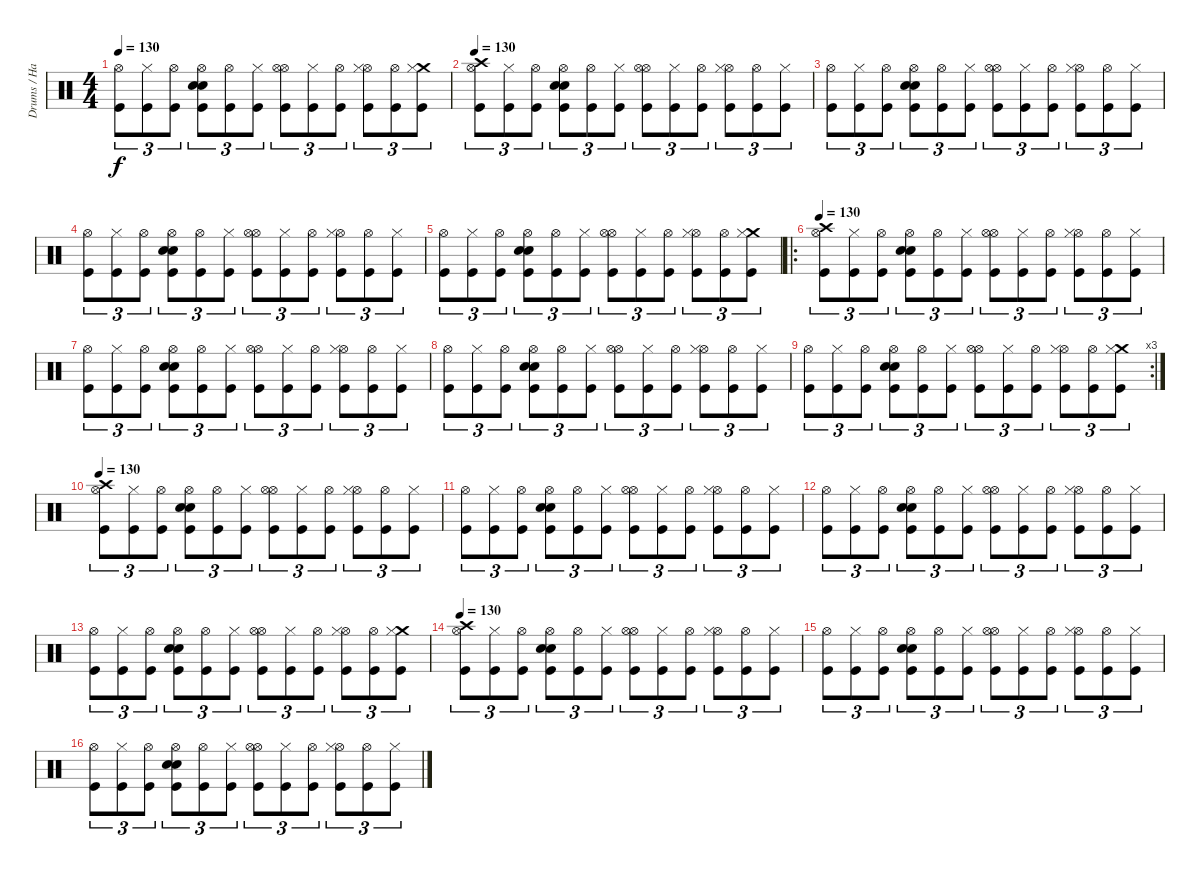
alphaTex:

\track ("Drums / Hammer of God" "Drums / Ha") {instrument percussion}
\staff {score}
\articulation defaults
\ts (4 4)
\tempo 130
\clef neutral
\ks c
("Hi-Hat (open)" "Kick (hit)").8{tu (3 2) dy f} ("Hi-Hat (closed)" "Kick (hit)").8{tu (3 2)} ("Hi-Hat (open)" "Kick (hit)").8{tu (3 2)} ("Snare (hit) 2" "Hi-Hat (open)" "Snare (hit) 2" "Kick (hit)").8{tu (3 2)} ("Hi-Hat (open)" "Kick (hit)").8{tu (3 2)} ("Hi-Hat (closed)" "Kick (hit)").8{tu (3 2)} ("Hi-Hat (open)" "Hi-Hat (open)" "Kick (hit)").8{tu (3 2)} ("Hi-Hat (closed)" "Kick (hit)").8{tu (3 2)} ("Hi-Hat (open)" "Kick (hit)").8{tu (3 2)} ("Hi-Hat (open)" "Hi-Hat (closed)" "Kick (hit)").8{tu (3 2)} ("Hi-Hat (open)" "Kick (hit)").8{tu (3 2)} ("Crash medium (hit)" "Hi-Hat (closed)" "Kick (hit)").8{tu (3 2)} |
\tempo 130
("Crash high (hit)" "Hi-Hat (open)" "Kick (hit)").8{tu (3 2)} ("Hi-Hat (closed)" "Kick (hit)").8{tu (3 2)} ("Hi-Hat (open)" "Kick (hit)").8{tu (3 2)} ("Snare (hit) 2" "Hi-Hat (open)" "Snare (hit) 2" "Kick (hit)").8{tu (3 2)} ("Hi-Hat (open)" "Kick (hit)").8{tu (3 2)} ("Hi-Hat (closed)" "Kick (hit)").8{tu (3 2)} ("Hi-Hat (open)" "Hi-Hat (open)" "Kick (hit)").8{tu (3 2)} ("Hi-Hat (closed)" "Kick (hit)").8{tu (3 2)} ("Hi-Hat (open)" "Kick (hit)").8{tu (3 2)} ("Hi-Hat (open)" "Hi-Hat (closed)" "Kick (hit)").8{tu (3 2)} ("Hi-Hat (open)" "Kick (hit)").8{tu (3 2)} ("Hi-Hat (closed)" "Kick (hit)").8{tu (3 2)} |
("Hi-Hat (open)" "Kick (hit)").8{tu (3 2)} ("Hi-Hat (closed)" "Kick (hit)").8{tu (3 2)} ("Hi-Hat (open)" "Kick (hit)").8{tu (3 2)} ("Snare (hit) 2" "Hi-Hat (open)" "Snare (hit) 2" "Kick (hit)").8{tu (3 2)} ("Hi-Hat (open)" "Kick (hit)").8{tu (3 2)} ("Hi-Hat (closed)" "Kick (hit)").8{tu (3 2)} ("Hi-Hat (open)" "Hi-Hat (open)" "Kick (hit)").8{tu (3 2)} ("Hi-Hat (closed)" "Kick (hit)").8{tu (3 2)} ("Hi-Hat (open)" "Kick (hit)").8{tu (3 2)} ("Hi-Hat (open)" "Hi-Hat (closed)" "Kick (hit)").8{tu (3 2)} ("Hi-Hat (open)" "Kick (hit)").8{tu (3 2)} ("Hi-Hat (closed)" "Kick (hit)").8{tu (3 2)} |
("Hi-Hat (open)" "Kick (hit)").8{tu (3 2)} ("Hi-Hat (closed)" "Kick (hit)").8{tu (3 2)} ("Hi-Hat (open)" "Kick (hit)").8{tu (3 2)} ("Snare (hit) 2" "Hi-Hat (open)" "Snare (hit) 2" "Kick (hit)").8{tu (3 2)} ("Hi-Hat (open)" "Kick (hit)").8{tu (3 2)} ("Hi-Hat (closed)" "Kick (hit)").8{tu (3 2)} ("Hi-Hat (open)" "Hi-Hat (open)" "Kick (hit)").8{tu (3 2)} ("Hi-Hat (closed)" "Kick (hit)").8{tu (3 2)} ("Hi-Hat (open)" "Kick (hit)").8{tu (3 2)} ("Hi-Hat (open)" "Hi-Hat (closed)" "Kick (hit)").8{tu (3 2)} ("Hi-Hat (open)" "Kick (hit)").8{tu (3 2)} ("Hi-Hat (closed)" "Kick (hit)").8{tu (3 2)} |
("Hi-Hat (open)" "Kick (hit)").8{tu (3 2)} ("Hi-Hat (closed)" "Kick (hit)").8{tu (3 2)} ("Hi-Hat (open)" "Kick (hit)").8{tu (3 2)} ("Snare (hit) 2" "Hi-Hat (open)" "Snare (hit) 2" "Kick (hit)").8{tu (3 2)} ("Hi-Hat (open)" "Kick (hit)").8{tu (3 2)} ("Hi-Hat (closed)" "Kick (hit)").8{tu (3 2)} ("Hi-Hat (open)" "Hi-Hat (open)" "Kick (hit)").8{tu (3 2)} ("Hi-Hat (closed)" "Kick (hit)").8{tu (3 2)} ("Hi-Hat (open)" "Kick (hit)").8{tu (3 2)} ("Hi-Hat (open)" "Hi-Hat (closed)" "Kick (hit)").8{tu (3 2)} ("Hi-Hat (open)" "Kick (hit)").8{tu (3 2)} ("Crash medium (hit)" "Hi-Hat (closed)" "Kick (hit)").8{tu (3 2)} |
\ro
\tempo 130
("Crash high (hit)" "Hi-Hat (open)" "Kick (hit)").8{tu (3 2)} ("Hi-Hat (closed)" "Kick (hit)").8{tu (3 2)} ("Hi-Hat (open)" "Kick (hit)").8{tu (3 2)} ("Snare (hit) 2" "Hi-Hat (open)" "Snare (hit) 2" "Kick (hit)").8{tu (3 2)} ("Hi-Hat (open)" "Kick (hit)").8{tu (3 2)} ("Hi-Hat (closed)" "Kick (hit)").8{tu (3 2)} ("Hi-Hat (open)" "Hi-Hat (open)" "Kick (hit)").8{tu (3 2)} ("Hi-Hat (closed)" "Kick (hit)").8{tu (3 2)} ("Hi-Hat (open)" "Kick (hit)").8{tu (3 2)} ("Hi-Hat (open)" "Hi-Hat (closed)" "Kick (hit)").8{tu (3 2)} ("Hi-Hat (open)" "Kick (hit)").8{tu (3 2)} ("Hi-Hat (closed)" "Kick (hit)").8{tu (3 2)} |
("Hi-Hat (open)" "Kick (hit)").8{tu (3 2)} ("Hi-Hat (closed)" "Kick (hit)").8{tu (3 2)} ("Hi-Hat (open)" "Kick (hit)").8{tu (3 2)} ("Snare (hit) 2" "Hi-Hat (open)" "Snare (hit) 2" "Kick (hit)").8{tu (3 2)} ("Hi-Hat (open)" "Kick (hit)").8{tu (3 2)} ("Hi-Hat (closed)" "Kick (hit)").8{tu (3 2)} ("Hi-Hat (open)" "Hi-Hat (open)" "Kick (hit)").8{tu (3 2)} ("Hi-Hat (closed)" "Kick (hit)").8{tu (3 2)} ("Hi-Hat (open)" "Kick (hit)").8{tu (3 2)} ("Hi-Hat (open)" "Hi-Hat (closed)" "Kick (hit)").8{tu (3 2)} ("Hi-Hat (open)" "Kick (hit)").8{tu (3 2)} ("Hi-Hat (closed)" "Kick (hit)").8{tu (3 2)} |
("Hi-Hat (open)" "Kick (hit)").8{tu (3 2)} ("Hi-Hat (closed)" "Kick (hit)").8{tu (3 2)} ("Hi-Hat (open)" "Kick (hit)").8{tu (3 2)} ("Snare (hit) 2" "Hi-Hat (open)" "Snare (hit) 2" "Kick (hit)").8{tu (3 2)} ("Hi-Hat (open)" "Kick (hit)").8{tu (3 2)} ("Hi-Hat (closed)" "Kick (hit)").8{tu (3 2)} ("Hi-Hat (open)" "Hi-Hat (open)" "Kick (hit)").8{tu (3 2)} ("Hi-Hat (closed)" "Kick (hit)").8{tu (3 2)} ("Hi-Hat (open)" "Kick (hit)").8{tu (3 2)} ("Hi-Hat (open)" "Hi-Hat (closed)" "Kick (hit)").8{tu (3 2)} ("Hi-Hat (open)" "Kick (hit)").8{tu (3 2)} ("Hi-Hat (closed)" "Kick (hit)").8{tu (3 2)} |
\rc 3
("Hi-Hat (open)" "Kick (hit)").8{tu (3 2)} ("Hi-Hat (closed)" "Kick (hit)").8{tu (3 2)} ("Hi-Hat (open)" "Kick (hit)").8{tu (3 2)} ("Snare (hit) 2" "Hi-Hat (open)" "Snare (hit) 2" "Kick (hit)").8{tu (3 2)} ("Hi-Hat (open)" "Kick (hit)").8{tu (3 2)} ("Hi-Hat (closed)" "Kick (hit)").8{tu (3 2)} ("Hi-Hat (open)" "Hi-Hat (open)" "Kick (hit)").8{tu (3 2)} ("Hi-Hat (closed)" "Kick (hit)").8{tu (3 2)} ("Hi-Hat (open)" "Kick (hit)").8{tu (3 2)} ("Hi-Hat (open)" "Hi-Hat (closed)" "Kick (hit)").8{tu (3 2)} ("Hi-Hat (open)" "Kick (hit)").8{tu (3 2)} ("Crash medium (hit)" "Hi-Hat (closed)" "Kick (hit)").8{tu (3 2)} |
\tempo 130
("Crash high (hit)" "Hi-Hat (open)" "Kick (hit)").8{tu (3 2)} ("Hi-Hat (closed)" "Kick (hit)").8{tu (3 2)} ("Hi-Hat (open)" "Kick (hit)").8{tu (3 2)} ("Snare (hit) 2" "Hi-Hat (open)" "Snare (hit) 2" "Kick (hit)").8{tu (3 2)} ("Hi-Hat (open)" "Kick (hit)").8{tu (3 2)} ("Hi-Hat (closed)" "Kick (hit)").8{tu (3 2)} ("Hi-Hat (open)" "Hi-Hat (open)" "Kick (hit)").8{tu (3 2)} ("Hi-Hat (closed)" "Kick (hit)").8{tu (3 2)} ("Hi-Hat (open)" "Kick (hit)").8{tu (3 2)} ("Hi-Hat (open)" "Hi-Hat (closed)" "Kick (hit)").8{tu (3 2)} ("Hi-Hat (open)" "Kick (hit)").8{tu (3 2)} ("Hi-Hat (closed)" "Kick (hit)").8{tu (3 2)} |
("Hi-Hat (open)" "Kick (hit)").8{tu (3 2)} ("Hi-Hat (closed)" "Kick (hit)").8{tu (3 2)} ("Hi-Hat (open)" "Kick (hit)").8{tu (3 2)} ("Snare (hit) 2" "Hi-Hat (open)" "Snare (hit) 2" "Kick (hit)").8{tu (3 2)} ("Hi-Hat (open)" "Kick (hit)").8{tu (3 2)} ("Hi-Hat (closed)" "Kick (hit)").8{tu (3 2)} ("Hi-Hat (open)" "Hi-Hat (open)" "Kick (hit)").8{tu (3 2)} ("Hi-Hat (closed)" "Kick (hit)").8{tu (3 2)} ("Hi-Hat (open)" "Kick (hit)").8{tu (3 2)} ("Hi-Hat (open)" "Hi-Hat (closed)" "Kick (hit)").8{tu (3 2)} ("Hi-Hat (open)" "Kick (hit)").8{tu (3 2)} ("Hi-Hat (closed)" "Kick (hit)").8{tu (3 2)} |
("Hi-Hat (open)" "Kick (hit)").8{tu (3 2)} ("Hi-Hat (closed)" "Kick (hit)").8{tu (3 2)} ("Hi-Hat (open)" "Kick (hit)").8{tu (3 2)} ("Snare (hit) 2" "Hi-Hat (open)" "Snare (hit) 2" "Kick (hit)").8{tu (3 2)} ("Hi-Hat (open)" "Kick (hit)").8{tu (3 2)} ("Hi-Hat (closed)" "Kick (hit)").8{tu (3 2)} ("Hi-Hat (open)" "Hi-Hat (open)" "Kick (hit)").8{tu (3 2)} ("Hi-Hat (closed)" "Kick (hit)").8{tu (3 2)} ("Hi-Hat (open)" "Kick (hit)").8{tu (3 2)} ("Hi-Hat (open)" "Hi-Hat (closed)" "Kick (hit)").8{tu (3 2)} ("Hi-Hat (open)" "Kick (hit)").8{tu (3 2)} ("Hi-Hat (closed)" "Kick (hit)").8{tu (3 2)} |
("Hi-Hat (open)" "Kick (hit)").8{tu (3 2)} ("Hi-Hat (closed)" "Kick (hit)").8{tu (3 2)} ("Hi-Hat (open)" "Kick (hit)").8{tu (3 2)} ("Snare (hit) 2" "Hi-Hat (open)" "Snare (hit) 2" "Kick (hit)").8{tu (3 2)} ("Hi-Hat (open)" "Kick (hit)").8{tu (3 2)} ("Hi-Hat (closed)" "Kick (hit)").8{tu (3 2)} ("Hi-Hat (open)" "Hi-Hat (open)" "Kick (hit)").8{tu (3 2)} ("Hi-Hat (closed)" "Kick (hit)").8{tu (3 2)} ("Hi-Hat (open)" "Kick (hit)").8{tu (3 2)} ("Hi-Hat (open)" "Hi-Hat (closed)" "Kick (hit)").8{tu (3 2)} ("Hi-Hat (open)" "Kick (hit)").8{tu (3 2)} ("Crash medium (hit)" "Hi-Hat (closed)" "Kick (hit)").8{tu (3 2)} |
\tempo 130
("Crash high (hit)" "Hi-Hat (open)" "Kick (hit)").8{tu (3 2)} ("Hi-Hat (closed)" "Kick (hit)").8{tu (3 2)} ("Hi-Hat (open)" "Kick (hit)").8{tu (3 2)} ("Snare (hit) 2" "Hi-Hat (open)" "Snare (hit) 2" "Kick (hit)").8{tu (3 2)} ("Hi-Hat (open)" "Kick (hit)").8{tu (3 2)} ("Hi-Hat (closed)" "Kick (hit)").8{tu (3 2)} ("Hi-Hat (open)" "Hi-Hat (open)" "Kick (hit)").8{tu (3 2)} ("Hi-Hat (closed)" "Kick (hit)").8{tu (3 2)} ("Hi-Hat (open)" "Kick (hit)").8{tu (3 2)} ("Hi-Hat (open)" "Hi-Hat (closed)" "Kick (hit)").8{tu (3 2)} ("Hi-Hat (open)" "Kick (hit)").8{tu (3 2)} ("Hi-Hat (closed)" "Kick (hit)").8{tu (3 2)} |
("Hi-Hat (open)" "Kick (hit)").8{tu (3 2)} ("Hi-Hat (closed)" "Kick (hit)").8{tu (3 2)} ("Hi-Hat (open)" "Kick (hit)").8{tu (3 2)} ("Snare (hit) 2" "Hi-Hat (open)" "Snare (hit) 2" "Kick (hit)").8{tu (3 2)} ("Hi-Hat (open)" "Kick (hit)").8{tu (3 2)} ("Hi-Hat (closed)" "Kick (hit)").8{tu (3 2)} ("Hi-Hat (open)" "Hi-Hat (open)" "Kick (hit)").8{tu (3 2)} ("Hi-Hat (closed)" "Kick (hit)").8{tu (3 2)} ("Hi-Hat (open)" "Kick (hit)").8{tu (3 2)} ("Hi-Hat (open)" "Hi-Hat (closed)" "Kick (hit)").8{tu (3 2)} ("Hi-Hat (open)" "Kick (hit)").8{tu (3 2)} ("Hi-Hat (closed)" "Kick (hit)").8{tu (3 2)} |
("Hi-Hat (open)" "Kick (hit)").8{tu (3 2)} ("Hi-Hat (closed)" "Kick (hit)").8{tu (3 2)} ("Hi-Hat (open)" "Kick (hit)").8{tu (3 2)} ("Snare (hit) 2" "Hi-Hat (open)" "Snare (hit) 2" "Kick (hit)").8{tu (3 2)} ("Hi-Hat (open)" "Kick (hit)").8{tu (3 2)} ("Hi-Hat (closed)" "Kick (hit)").8{tu (3 2)} ("Hi-Hat (open)" "Hi-Hat (open)" "Kick (hit)").8{tu (3 2)} ("Hi-Hat (closed)" "Kick (hit)").8{tu (3 2)} ("Hi-Hat (open)" "Kick (hit)").8{tu (3 2)} ("Hi-Hat (open)" "Hi-Hat (closed)" "Kick (hit)").8{tu (3 2)} ("Hi-Hat (open)" "Kick (hit)").8{tu (3 2)} ("Hi-Hat (closed)" "Kick (hit)").8{tu (3 2)}
